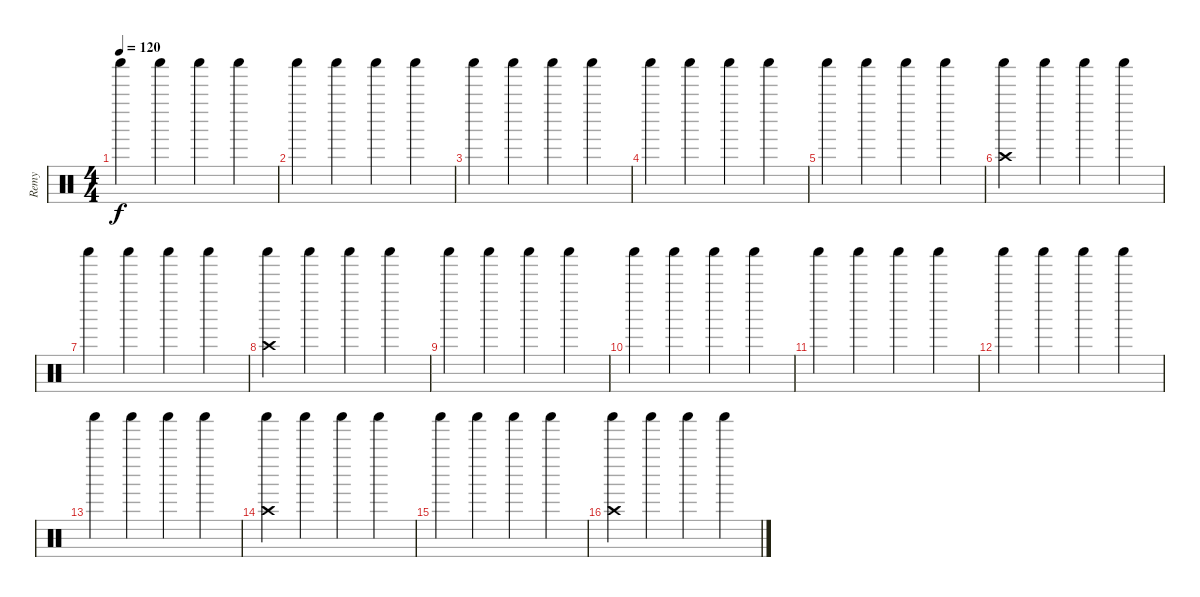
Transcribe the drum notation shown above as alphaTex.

\track ("Remy" "Remy") {instrument percussion}
\staff {score}
\articulation defaults
\ts (4 4)
\tempo 120
\clef neutral
\ks c "Shaker (hit)".4{dy f} "Shaker (hit)".4 "Shaker (hit)".4 "Shaker (hit)".4
|
"Shaker (hit)".4 "Shaker (hit)".4 "Shaker (hit)".4 "Shaker (hit)".4 |
"Shaker (hit)".4 "Shaker (hit)".4 "Shaker (hit)".4 "Shaker (hit)".4 |
"Shaker (hit)".4 "Shaker (hit)".4 "Shaker (hit)".4 "Shaker (hit)".4 |
"Shaker (hit)".4 "Shaker (hit)".4 "Shaker (hit)".4 "Shaker (hit)".4 |
("Shaker (hit)" "Crash high (hit)").4 "Shaker (hit)".4 "Shaker (hit)".4 "Shaker (hit)".4 |
"Shaker (hit)".4 "Shaker (hit)".4 "Shaker (hit)".4 "Shaker (hit)".4 |
("Shaker (hit)" "Crash high (hit)").4 "Shaker (hit)".4 "Shaker (hit)".4 "Shaker (hit)".4 |
"Shaker (hit)".4 "Shaker (hit)".4 "Shaker (hit)".4 "Shaker (hit)".4 |
"Shaker (hit)".4 "Shaker (hit)".4 "Shaker (hit)".4 "Shaker (hit)".4 |
"Shaker (hit)".4 "Shaker (hit)".4 "Shaker (hit)".4 "Shaker (hit)".4 |
"Shaker (hit)".4 "Shaker (hit)".4 "Shaker (hit)".4 "Shaker (hit)".4 |
"Shaker (hit)".4 "Shaker (hit)".4 "Shaker (hit)".4 "Shaker (hit)".4 |
("Shaker (hit)" "Crash high (hit)").4 "Shaker (hit)".4 "Shaker (hit)".4 "Shaker (hit)".4 |
"Shaker (hit)".4 "Shaker (hit)".4 "Shaker (hit)".4 "Shaker (hit)".4 |
("Shaker (hit)" "Crash high (hit)").4 "Shaker (hit)".4 "Shaker (hit)".4 "Shaker (hit)".4
